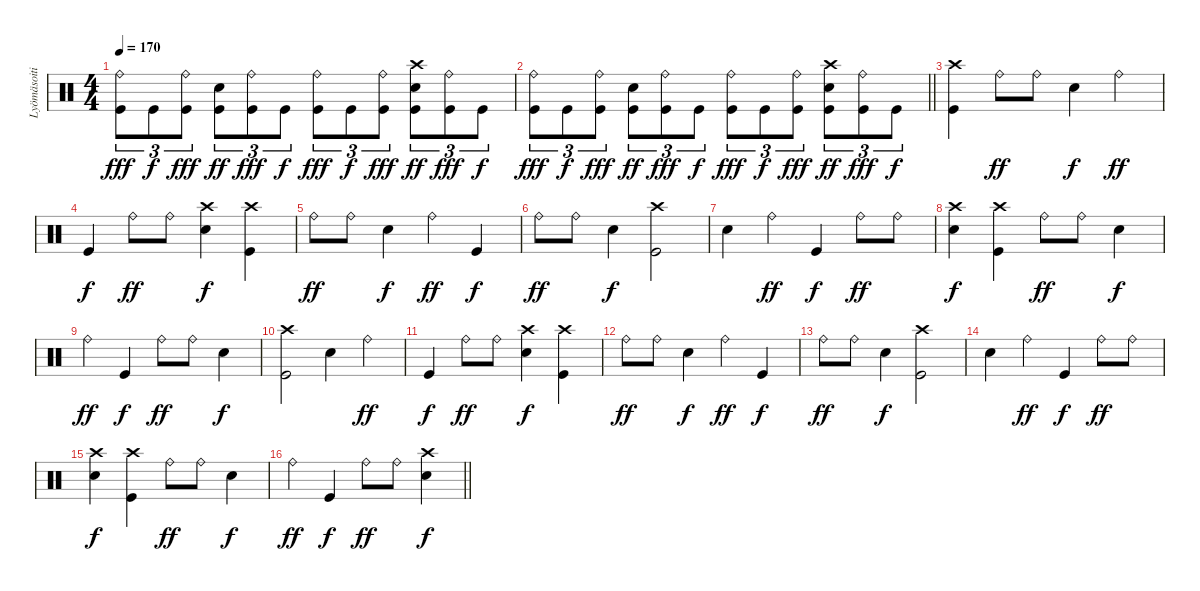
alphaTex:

\track ("Lyömäsoitin" "Lyömäsoiti") {instrument percussion}
\staff {score}
\articulation defaults
\ts (4 4)
\tempo 170
\clef neutral
\ks c
("Ride (bell)" "Kick (hit)").8{tu (3 2) dy fff} "Kick (hit)".8{tu (3 2) dy f} ("Ride (bell)" "Kick (hit)").8{tu (3 2) dy fff} ("Electric Snare (hit)" "Kick (hit)").8{tu (3 2) dy ff} ("Ride (bell)" "Kick (hit)").8{tu (3 2) dy fff} "Kick (hit)".8{tu (3 2) dy f} ("Ride (bell)" "Kick (hit)").8{tu (3 2) dy fff} "Kick (hit)".8{tu (3 2) dy f} ("Ride (bell)" "Kick (hit)").8{tu (3 2) dy fff} ("Crash high (hit)" "Electric Snare (hit)" "Kick (hit)").8{tu (3 2) dy ff} ("Ride (bell)" "Kick (hit)").8{tu (3 2) dy fff} "Kick (hit)".8{tu (3 2) dy f} |
\barLineRight lightlight
("Ride (bell)" "Kick (hit)").8{tu (3 2) dy fff} "Kick (hit)".8{tu (3 2) dy f} ("Ride (bell)" "Kick (hit)").8{tu (3 2) dy fff} ("Electric Snare (hit)" "Kick (hit)").8{tu (3 2) dy ff} ("Ride (bell)" "Kick (hit)").8{tu (3 2) dy fff} "Kick (hit)".8{tu (3 2) dy f} ("Ride (bell)" "Kick (hit)").8{tu (3 2) dy fff} "Kick (hit)".8{tu (3 2) dy f} ("Ride (bell)" "Kick (hit)").8{tu (3 2) dy fff} ("Crash high (hit)" "Electric Snare (hit)" "Kick (hit)").8{tu (3 2) dy ff} ("Ride (bell)" "Kick (hit)").8{tu (3 2) dy fff} "Kick (hit)".8{tu (3 2) dy f} |
\section ("" "")
("Crash high (hit)" "Kick (hit)").4 "Ride (bell)".8{dy ff} "Ride (bell)".8 "Electric Snare (hit)".4{dy f} "Ride (bell)".4{dy ff} |
"Kick (hit)".4{dy f} "Ride (bell)".8{dy ff} "Ride (bell)".8 ("Crash high (hit)" "Electric Snare (hit)").4{dy f} ("Crash high (hit)" "Kick (hit)").4 |
"Ride (bell)".8{dy ff} "Ride (bell)".8 "Electric Snare (hit)".4{dy f} "Ride (bell)".4{dy ff} "Kick (hit)".4{dy f} |
"Ride (bell)".8{dy ff} "Ride (bell)".8 "Electric Snare (hit)".4{dy f} ("Crash high (hit)" "Kick (hit)").2 |
"Electric Snare (hit)".4 "Ride (bell)".4{dy ff} "Kick (hit)".4{dy f} "Ride (bell)".8{dy ff} "Ride (bell)".8 |
("Crash high (hit)" "Electric Snare (hit)").4{dy f} ("Crash high (hit)" "Kick (hit)").4 "Ride (bell)".8{dy ff} "Ride (bell)".8 "Electric Snare (hit)".4{dy f} |
"Ride (bell)".4{dy ff} "Kick (hit)".4{dy f} "Ride (bell)".8{dy ff} "Ride (bell)".8 "Electric Snare (hit)".4{dy f} |
("Crash high (hit)" "Kick (hit)").2 "Electric Snare (hit)".4 "Ride (bell)".4{dy ff} |
"Kick (hit)".4{dy f} "Ride (bell)".8{dy ff} "Ride (bell)".8 ("Crash high (hit)" "Electric Snare (hit)").4{dy f} ("Crash high (hit)" "Kick (hit)").4 |
"Ride (bell)".8{dy ff} "Ride (bell)".8 "Electric Snare (hit)".4{dy f} "Ride (bell)".4{dy ff} "Kick (hit)".4{dy f} |
"Ride (bell)".8{dy ff} "Ride (bell)".8 "Electric Snare (hit)".4{dy f} ("Crash high (hit)" "Kick (hit)").2 |
"Electric Snare (hit)".4 "Ride (bell)".4{dy ff} "Kick (hit)".4{dy f} "Ride (bell)".8{dy ff} "Ride (bell)".8 |
("Crash high (hit)" "Electric Snare (hit)").4{dy f} ("Crash high (hit)" "Kick (hit)").4 "Ride (bell)".8{dy ff} "Ride (bell)".8 "Electric Snare (hit)".4{dy f} |
\barLineRight lightlight "Ride (bell)".4{dy ff} "Kick (hit)".4{dy f} "Ride (bell)".8{dy ff} "Ride (bell)".8
("Crash high (hit)" "Electric Snare (hit)").4{dy f}
